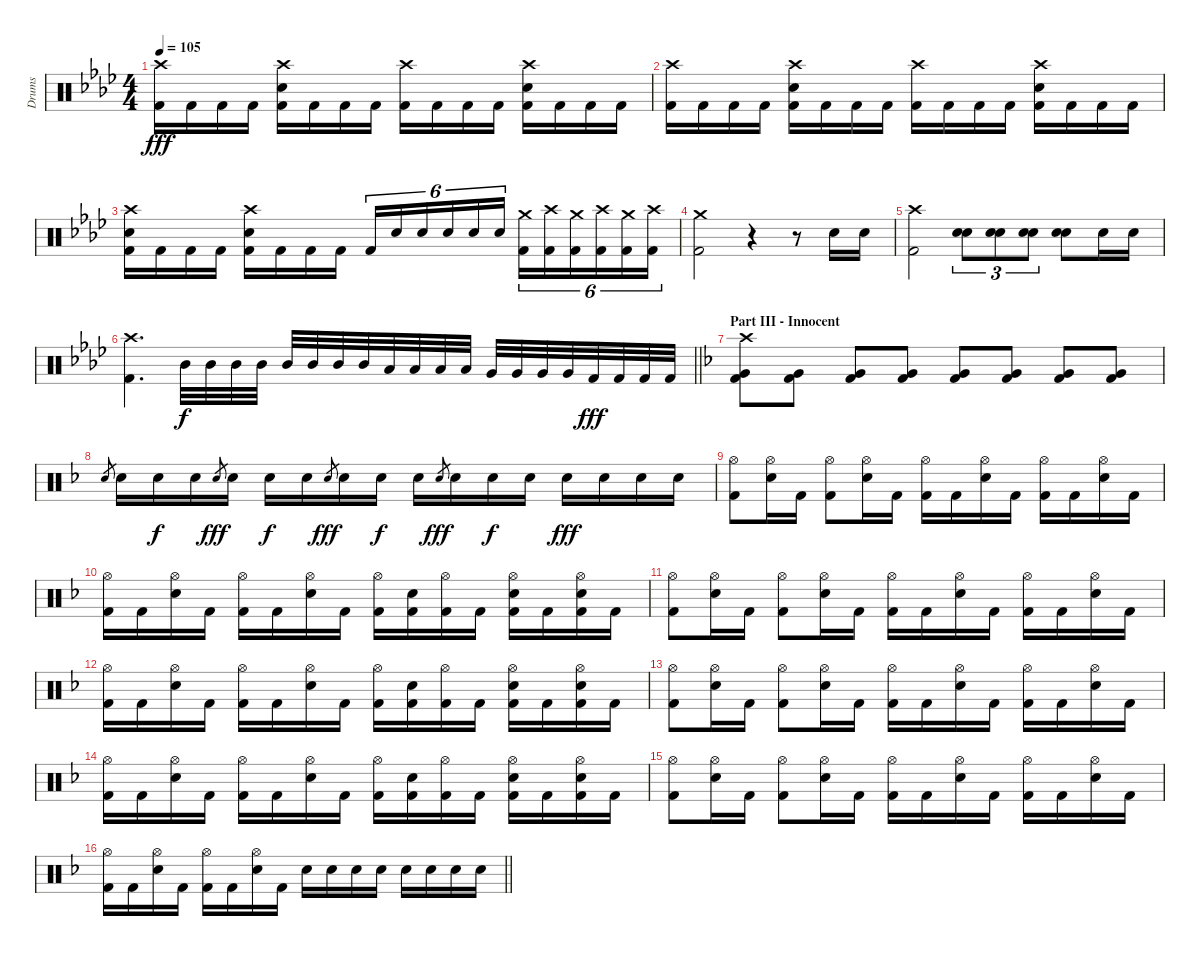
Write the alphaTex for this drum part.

\track ("Drums" "Drums") {instrument percussion}
\staff {score}
\articulation defaults
\ts (4 4)
\tempo 105
\clef neutral
\ks fminor
("Crash high (hit)" "Kick (hit) 2").16{dy fff} "Kick (hit) 2".16 "Kick (hit) 2".16 "Kick (hit) 2".16 ("Crash high (hit)" "Snare (hit) 2" "Kick (hit) 2").16 "Kick (hit) 2".16 "Kick (hit) 2".16 "Kick (hit) 2".16 ("Crash high (hit)" "Kick (hit) 2").16 "Kick (hit) 2".16 "Kick (hit) 2".16 "Kick (hit) 2".16 ("Crash high (hit)" "Snare (hit) 2" "Kick (hit) 2").16 "Kick (hit) 2".16 "Kick (hit) 2".16 "Kick (hit) 2".16 |
("Crash high (hit)" "Kick (hit) 2").16 "Kick (hit) 2".16 "Kick (hit) 2".16 "Kick (hit) 2".16 ("Crash high (hit)" "Snare (hit) 2" "Kick (hit) 2").16 "Kick (hit) 2".16 "Kick (hit) 2".16 "Kick (hit) 2".16 ("Crash high (hit)" "Kick (hit) 2").16 "Kick (hit) 2".16 "Kick (hit) 2".16 "Kick (hit) 2".16 ("Crash high (hit)" "Snare (hit) 2" "Kick (hit) 2").16 "Kick (hit) 2".16 "Kick (hit) 2".16 "Kick (hit) 2".16 |
("Crash high (hit)" "Snare (hit) 2" "Kick (hit) 2").16 "Kick (hit) 2".16 "Kick (hit) 2".16 "Kick (hit) 2".16 ("Crash high (hit)" "Snare (hit) 2" "Kick (hit) 2").16 "Kick (hit) 2".16 "Kick (hit) 2".16 "Kick (hit) 2".16 "Kick (hit) 2".16{tu (6 4)} "Snare (hit) 2".16{tu (6 4)} "Snare (hit) 2".16{tu (6 4)} "Snare (hit) 2".16{tu (6 4)} "Snare (hit) 2".16{tu (6 4)} "Snare (hit) 2".16{tu (6 4)} ("Crash medium (hit)" "Kick (hit) 2").16{tu (6 4)} ("Crash high (hit)" "Kick (hit) 2").16{tu (6 4)} ("Crash medium (hit)" "Kick (hit) 2").16{tu (6 4)} ("Crash high (hit)" "Kick (hit) 2").16{tu (6 4)} ("Crash medium (hit)" "Kick (hit) 2").16{tu (6 4)} ("Crash high (hit)" "Kick (hit) 2").16{tu (6 4)} |
("Crash medium (hit)" "Kick (hit) 2").2 r.4 r.8 "Snare (hit) 2".16 "Snare (hit) 2".16 |
("Crash high (hit)" "Kick (hit) 2").2 ("Snare (hit) 2" "Snare (hit) 2").8{tu (3 2) bd 60} ("Snare (hit) 2" "Snare (hit) 2").8{tu (3 2) bd 60} ("Snare (hit) 2" "Snare (hit) 2").8{tu (3 2) bd 60} ("Snare (hit) 2" "Snare (hit) 2").8{bd 60} "Snare (hit) 2".16 "Snare (hit) 2".16 |
\barLineRight lightlight
("Crash high (hit)" "Kick (hit) 2").4{d} "Mid Tom (hit)".32{dy f} "Mid Tom (hit)".32 "Mid Tom (hit)".32 "Mid Tom (hit)".32 "Mid Tom (hit)".32 "Mid Tom (hit)".32 "Mid Tom (hit)".32 "Mid Tom (hit)".32 "Low Tom (hit)".32 "Low Tom (hit)".32 "Low Tom (hit)".32 "Low Tom (hit)".32 "Very Low Tom (hit)".32 "Very Low Tom (hit)".32 "Very Low Tom (hit)".32 "Very Low Tom (hit)".32 "Kick (hit) 2".32{dy fff} "Kick (hit) 2".32 "Kick (hit) 2".32 "Kick (hit) 2".32 |
\section ("" "Part III - Innocent")
\ks dminor
("Crash high (hit)" "Very Low Tom (hit)" "Kick (hit) 2").8 ("Very Low Tom (hit)" "Kick (hit) 2").8 ("Very Low Tom (hit)" "Kick (hit) 2").8 ("Very Low Tom (hit)" "Kick (hit) 2").8 ("Very Low Tom (hit)" "Kick (hit) 2").8 ("Very Low Tom (hit)" "Kick (hit) 2").8 ("Very Low Tom (hit)" "Kick (hit) 2").8 ("Very Low Tom (hit)" "Kick (hit) 2").8 |
"Snare (hit) 2".8{gr} "Snare (hit) 2".16 "Snare (hit) 2".16{dy f} "Snare (hit) 2".16 "Snare (hit) 2".8{gr dy fff} "Snare (hit) 2".16 "Snare (hit) 2".16{dy f} "Snare (hit) 2".16 "Snare (hit) 2".8{gr dy fff} "Snare (hit) 2".16 "Snare (hit) 2".16{dy f} "Snare (hit) 2".16 "Snare (hit) 2".8{gr dy fff} "Snare (hit) 2".16 "Snare (hit) 2".16{dy f} "Snare (hit) 2".16 "Snare (hit) 2".16{dy fff} "Snare (hit) 2".16 "Snare (hit) 2".16 "Snare (hit) 2".16 |
("Hi-Hat (open)" "Kick (hit) 2").8 ("Hi-Hat (open)" "Snare (hit) 2").16 "Kick (hit) 2".16 ("Hi-Hat (open)" "Kick (hit) 2").8 ("Hi-Hat (open)" "Snare (hit) 2").16 "Kick (hit) 2".16 ("Hi-Hat (open)" "Kick (hit) 2").16 "Kick (hit) 2".16 ("Hi-Hat (open)" "Snare (hit) 2").16 "Kick (hit) 2".16 ("Hi-Hat (open)" "Kick (hit) 2").16 "Kick (hit) 2".16 ("Hi-Hat (open)" "Snare (hit) 2").16 "Kick (hit) 2".16 |
("Hi-Hat (open)" "Kick (hit) 2").16 "Kick (hit) 2".16 ("Hi-Hat (open)" "Snare (hit) 2").16 "Kick (hit) 2".16 ("Hi-Hat (open)" "Kick (hit) 2").16 "Kick (hit) 2".16 ("Hi-Hat (open)" "Snare (hit) 2").16 "Kick (hit) 2".16 ("Hi-Hat (open)" "Kick (hit) 2").16 ("Snare (hit) 2" "Kick (hit) 2").16 ("Hi-Hat (open)" "Kick (hit) 2").16 "Kick (hit) 2".16 ("Hi-Hat (open)" "Snare (hit) 2" "Kick (hit) 2").16 "Kick (hit) 2".16 ("Hi-Hat (open)" "Snare (hit) 2" "Kick (hit) 2").16 "Kick (hit) 2".16 |
("Hi-Hat (open)" "Kick (hit) 2").8 ("Hi-Hat (open)" "Snare (hit) 2").16 "Kick (hit) 2".16 ("Hi-Hat (open)" "Kick (hit) 2").8 ("Hi-Hat (open)" "Snare (hit) 2").16 "Kick (hit) 2".16 ("Hi-Hat (open)" "Kick (hit) 2").16 "Kick (hit) 2".16 ("Hi-Hat (open)" "Snare (hit) 2").16 "Kick (hit) 2".16 ("Hi-Hat (open)" "Kick (hit) 2").16 "Kick (hit) 2".16 ("Hi-Hat (open)" "Snare (hit) 2").16 "Kick (hit) 2".16 |
("Hi-Hat (open)" "Kick (hit) 2").16 "Kick (hit) 2".16 ("Hi-Hat (open)" "Snare (hit) 2").16 "Kick (hit) 2".16 ("Hi-Hat (open)" "Kick (hit) 2").16 "Kick (hit) 2".16 ("Hi-Hat (open)" "Snare (hit) 2").16 "Kick (hit) 2".16 ("Hi-Hat (open)" "Kick (hit) 2").16 ("Snare (hit) 2" "Kick (hit) 2").16 ("Hi-Hat (open)" "Kick (hit) 2").16 "Kick (hit) 2".16 ("Hi-Hat (open)" "Snare (hit) 2" "Kick (hit) 2").16 "Kick (hit) 2".16 ("Hi-Hat (open)" "Snare (hit) 2" "Kick (hit) 2").16 "Kick (hit) 2".16 |
("Hi-Hat (open)" "Kick (hit) 2").8 ("Hi-Hat (open)" "Snare (hit) 2").16 "Kick (hit) 2".16 ("Hi-Hat (open)" "Kick (hit) 2").8 ("Hi-Hat (open)" "Snare (hit) 2").16 "Kick (hit) 2".16 ("Hi-Hat (open)" "Kick (hit) 2").16 "Kick (hit) 2".16 ("Hi-Hat (open)" "Snare (hit) 2").16 "Kick (hit) 2".16 ("Hi-Hat (open)" "Kick (hit) 2").16 "Kick (hit) 2".16 ("Hi-Hat (open)" "Snare (hit) 2").16 "Kick (hit) 2".16 |
("Hi-Hat (open)" "Kick (hit) 2").16 "Kick (hit) 2".16 ("Hi-Hat (open)" "Snare (hit) 2").16 "Kick (hit) 2".16 ("Hi-Hat (open)" "Kick (hit) 2").16 "Kick (hit) 2".16 ("Hi-Hat (open)" "Snare (hit) 2").16 "Kick (hit) 2".16 ("Hi-Hat (open)" "Kick (hit) 2").16 ("Snare (hit) 2" "Kick (hit) 2").16 ("Hi-Hat (open)" "Kick (hit) 2").16 "Kick (hit) 2".16 ("Hi-Hat (open)" "Snare (hit) 2" "Kick (hit) 2").16 "Kick (hit) 2".16 ("Hi-Hat (open)" "Snare (hit) 2" "Kick (hit) 2").16 "Kick (hit) 2".16 |
("Hi-Hat (open)" "Kick (hit) 2").8 ("Hi-Hat (open)" "Snare (hit) 2").16 "Kick (hit) 2".16 ("Hi-Hat (open)" "Kick (hit) 2").8 ("Hi-Hat (open)" "Snare (hit) 2").16 "Kick (hit) 2".16 ("Hi-Hat (open)" "Kick (hit) 2").16 "Kick (hit) 2".16 ("Hi-Hat (open)" "Snare (hit) 2").16 "Kick (hit) 2".16 ("Hi-Hat (open)" "Kick (hit) 2").16 "Kick (hit) 2".16 ("Hi-Hat (open)" "Snare (hit) 2").16 "Kick (hit) 2".16 |
\barLineRight lightlight
("Hi-Hat (open)" "Kick (hit) 2").16 "Kick (hit) 2".16 ("Hi-Hat (open)" "Snare (hit) 2").16 "Kick (hit) 2".16 ("Hi-Hat (open)" "Kick (hit) 2").16 "Kick (hit) 2".16 ("Hi-Hat (open)" "Snare (hit) 2").16 "Kick (hit) 2".16 "Snare (hit) 2".16 "Snare (hit) 2".16 "Snare (hit) 2".16 "Snare (hit) 2".16 "Snare (hit) 2".16 "Snare (hit) 2".16 "Snare (hit) 2".16 "Snare (hit) 2".16
